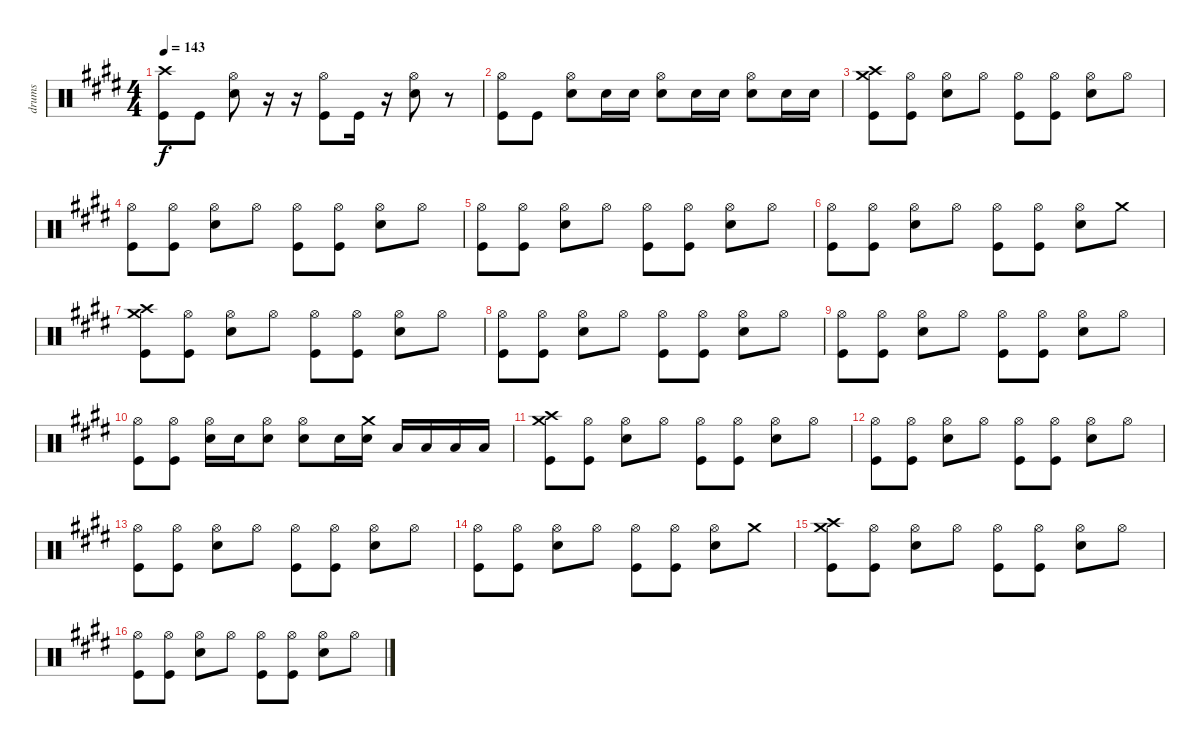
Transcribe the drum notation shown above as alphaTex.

\track ("drums" "drums") {instrument percussion}
\staff {score}
\articulation defaults
\ts (4 4)
\tempo 143
\clef neutral
\ks c#minor
("Crash high (hit)" "Kick (hit)").8{dy f} "Kick (hit)".8 ("Hi-Hat (open)" "Electric Snare (hit)").8 r.16 r.16 ("Hi-Hat (open)" "Kick (hit)").8 "Kick (hit)".16 r.16 ("Hi-Hat (open)" "Electric Snare (hit)").8 r.8 |
("Hi-Hat (open)" "Kick (hit)").8 "Kick (hit)".8 ("Hi-Hat (open)" "Electric Snare (hit)").8 "Electric Snare (hit)".16 "Electric Snare (hit)".16 ("Hi-Hat (open)" "Electric Snare (hit)").8 "Electric Snare (hit)".16 "Electric Snare (hit)".16 ("Hi-Hat (open)" "Electric Snare (hit)").8 "Electric Snare (hit)".16 "Electric Snare (hit)".16 |
("Crash medium (hit)" "Crash high (hit)" "Kick (hit)").8 ("Hi-Hat (open)" "Kick (hit)").8 ("Hi-Hat (open)" "Electric Snare (hit)").8 "Hi-Hat (open)".8 ("Hi-Hat (open)" "Kick (hit)").8 ("Hi-Hat (open)" "Kick (hit)").8 ("Hi-Hat (open)" "Electric Snare (hit)").8 "Hi-Hat (open)".8 |
("Hi-Hat (open)" "Kick (hit)").8 ("Hi-Hat (open)" "Kick (hit)").8 ("Hi-Hat (open)" "Electric Snare (hit)").8 "Hi-Hat (open)".8 ("Hi-Hat (open)" "Kick (hit)").8 ("Hi-Hat (open)" "Kick (hit)").8 ("Hi-Hat (open)" "Electric Snare (hit)").8 "Hi-Hat (open)".8 |
("Hi-Hat (open)" "Kick (hit)").8 ("Hi-Hat (open)" "Kick (hit)").8 ("Hi-Hat (open)" "Electric Snare (hit)").8 "Hi-Hat (open)".8 ("Hi-Hat (open)" "Kick (hit)").8 ("Hi-Hat (open)" "Kick (hit)").8 ("Hi-Hat (open)" "Electric Snare (hit)").8 "Hi-Hat (open)".8 |
("Hi-Hat (open)" "Kick (hit)").8 ("Hi-Hat (open)" "Kick (hit)").8 ("Hi-Hat (open)" "Electric Snare (hit)").8 "Hi-Hat (open)".8 ("Hi-Hat (open)" "Kick (hit)").8 ("Hi-Hat (open)" "Kick (hit)").8 ("Hi-Hat (open)" "Electric Snare (hit)").8 "Crash medium (hit)".8 |
("Crash medium (hit)" "Crash high (hit)" "Kick (hit)").8 ("Hi-Hat (open)" "Kick (hit)").8 ("Hi-Hat (open)" "Electric Snare (hit)").8 "Hi-Hat (open)".8 ("Hi-Hat (open)" "Kick (hit)").8 ("Hi-Hat (open)" "Kick (hit)").8 ("Hi-Hat (open)" "Electric Snare (hit)").8 "Hi-Hat (open)".8 |
("Hi-Hat (open)" "Kick (hit)").8 ("Hi-Hat (open)" "Kick (hit)").8 ("Hi-Hat (open)" "Electric Snare (hit)").8 "Hi-Hat (open)".8 ("Hi-Hat (open)" "Kick (hit)").8 ("Hi-Hat (open)" "Kick (hit)").8 ("Hi-Hat (open)" "Electric Snare (hit)").8 "Hi-Hat (open)".8 |
("Hi-Hat (open)" "Kick (hit)").8 ("Hi-Hat (open)" "Kick (hit)").8 ("Hi-Hat (open)" "Electric Snare (hit)").8 "Hi-Hat (open)".8 ("Hi-Hat (open)" "Kick (hit)").8 ("Hi-Hat (open)" "Kick (hit)").8 ("Hi-Hat (open)" "Electric Snare (hit)").8 "Hi-Hat (open)".8 |
("Hi-Hat (open)" "Kick (hit)").8 ("Hi-Hat (open)" "Kick (hit)").8 ("Hi-Hat (open)" "Electric Snare (hit)").16 "Electric Snare (hit)".16 ("Hi-Hat (open)" "Electric Snare (hit)").8 ("Hi-Hat (open)" "Electric Snare (hit)").8 "Electric Snare (hit)".16 ("Crash medium (hit)" "Electric Snare (hit)").16 "Low Tom (hit)".16 "Low Tom (hit)".16 "Low Tom (hit)".16 "Low Tom (hit)".16 |
("Crash medium (hit)" "Crash high (hit)" "Kick (hit)").8 ("Hi-Hat (open)" "Kick (hit)").8 ("Hi-Hat (open)" "Electric Snare (hit)").8 "Hi-Hat (open)".8 ("Hi-Hat (open)" "Kick (hit)").8 ("Hi-Hat (open)" "Kick (hit)").8 ("Hi-Hat (open)" "Electric Snare (hit)").8 "Hi-Hat (open)".8 |
("Hi-Hat (open)" "Kick (hit)").8 ("Hi-Hat (open)" "Kick (hit)").8 ("Hi-Hat (open)" "Electric Snare (hit)").8 "Hi-Hat (open)".8 ("Hi-Hat (open)" "Kick (hit)").8 ("Hi-Hat (open)" "Kick (hit)").8 ("Hi-Hat (open)" "Electric Snare (hit)").8 "Hi-Hat (open)".8 |
("Hi-Hat (open)" "Kick (hit)").8 ("Hi-Hat (open)" "Kick (hit)").8 ("Hi-Hat (open)" "Electric Snare (hit)").8 "Hi-Hat (open)".8 ("Hi-Hat (open)" "Kick (hit)").8 ("Hi-Hat (open)" "Kick (hit)").8 ("Hi-Hat (open)" "Electric Snare (hit)").8 "Hi-Hat (open)".8 |
("Hi-Hat (open)" "Kick (hit)").8 ("Hi-Hat (open)" "Kick (hit)").8 ("Hi-Hat (open)" "Electric Snare (hit)").8 "Hi-Hat (open)".8 ("Hi-Hat (open)" "Kick (hit)").8 ("Hi-Hat (open)" "Kick (hit)").8 ("Hi-Hat (open)" "Electric Snare (hit)").8 "Crash medium (hit)".8 |
("Crash medium (hit)" "Crash high (hit)" "Kick (hit)").8 ("Hi-Hat (open)" "Kick (hit)").8 ("Hi-Hat (open)" "Electric Snare (hit)").8 "Hi-Hat (open)".8 ("Hi-Hat (open)" "Kick (hit)").8 ("Hi-Hat (open)" "Kick (hit)").8 ("Hi-Hat (open)" "Electric Snare (hit)").8 "Hi-Hat (open)".8 |
("Hi-Hat (open)" "Kick (hit)").8 ("Hi-Hat (open)" "Kick (hit)").8 ("Hi-Hat (open)" "Electric Snare (hit)").8 "Hi-Hat (open)".8 ("Hi-Hat (open)" "Kick (hit)").8 ("Hi-Hat (open)" "Kick (hit)").8 ("Hi-Hat (open)" "Electric Snare (hit)").8 "Hi-Hat (open)".8
